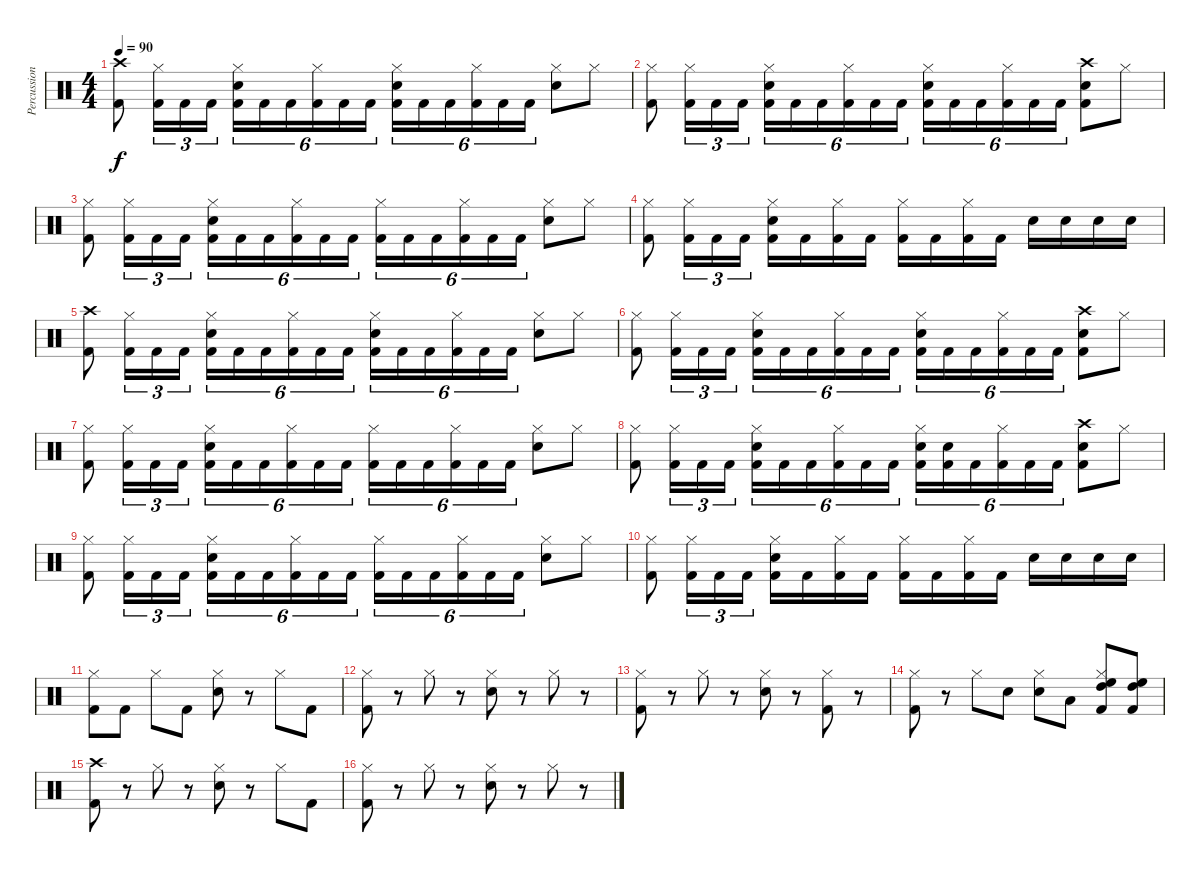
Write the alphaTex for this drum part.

\track ("Percussion" "Percussion") {instrument percussion}
\staff {score}
\articulation defaults
\ts (4 4)
\tempo 90
\clef neutral
\ks c
("Crash high (hit)" "Kick (hit) 2").8{dy f} ("Hi-Hat (closed)" "Kick (hit) 2").16{tu (3 2)} "Kick (hit) 2".16{tu (3 2)} "Kick (hit) 2".16{tu (3 2)} ("Hi-Hat (closed)" "Electric Snare (hit)" "Kick (hit) 2").16{tu (6 4)} "Kick (hit) 2".16{tu (6 4)} "Kick (hit) 2".16{tu (6 4)} ("Hi-Hat (closed)" "Kick (hit) 2").16{tu (6 4)} "Kick (hit) 2".16{tu (6 4)} "Kick (hit) 2".16{tu (6 4)} ("Hi-Hat (closed)" "Electric Snare (hit)" "Kick (hit) 2").16{tu (6 4)} "Kick (hit) 2".16{tu (6 4)} "Kick (hit) 2".16{tu (6 4)} ("Hi-Hat (closed)" "Kick (hit) 2").16{tu (6 4)} "Kick (hit) 2".16{tu (6 4)} "Kick (hit) 2".16{tu (6 4)} ("Hi-Hat (closed)" "Electric Snare (hit)").8 "Hi-Hat (closed)".8 |
("Hi-Hat (closed)" "Kick (hit) 2").8 ("Hi-Hat (closed)" "Kick (hit) 2").16{tu (3 2)} "Kick (hit) 2".16{tu (3 2)} "Kick (hit) 2".16{tu (3 2)} ("Hi-Hat (closed)" "Electric Snare (hit)" "Kick (hit) 2").16{tu (6 4)} "Kick (hit) 2".16{tu (6 4)} "Kick (hit) 2".16{tu (6 4)} ("Hi-Hat (closed)" "Kick (hit) 2").16{tu (6 4)} "Kick (hit) 2".16{tu (6 4)} "Kick (hit) 2".16{tu (6 4)} ("Hi-Hat (closed)" "Electric Snare (hit)" "Kick (hit) 2").16{tu (6 4)} "Kick (hit) 2".16{tu (6 4)} "Kick (hit) 2".16{tu (6 4)} ("Hi-Hat (closed)" "Kick (hit) 2").16{tu (6 4)} "Kick (hit) 2".16{tu (6 4)} "Kick (hit) 2".16{tu (6 4)} ("Crash high (hit)" "Electric Snare (hit)" "Kick (hit) 2").8 "Hi-Hat (closed)".8 |
("Hi-Hat (closed)" "Kick (hit) 2").8 ("Hi-Hat (closed)" "Kick (hit) 2").16{tu (3 2)} "Kick (hit) 2".16{tu (3 2)} "Kick (hit) 2".16{tu (3 2)} ("Hi-Hat (closed)" "Electric Snare (hit)" "Kick (hit) 2").16{tu (6 4)} "Kick (hit) 2".16{tu (6 4)} "Kick (hit) 2".16{tu (6 4)} ("Hi-Hat (closed)" "Kick (hit) 2").16{tu (6 4)} "Kick (hit) 2".16{tu (6 4)} "Kick (hit) 2".16{tu (6 4)} ("Hi-Hat (closed)" "Kick (hit) 2").16{tu (6 4)} "Kick (hit) 2".16{tu (6 4)} "Kick (hit) 2".16{tu (6 4)} ("Hi-Hat (closed)" "Kick (hit) 2").16{tu (6 4)} "Kick (hit) 2".16{tu (6 4)} "Kick (hit) 2".16{tu (6 4)} ("Hi-Hat (closed)" "Electric Snare (hit)").8 "Hi-Hat (closed)".8 |
("Hi-Hat (closed)" "Kick (hit) 2").8 ("Hi-Hat (closed)" "Kick (hit) 2").16{tu (3 2)} "Kick (hit) 2".16{tu (3 2)} "Kick (hit) 2".16{tu (3 2)} ("Hi-Hat (closed)" "Electric Snare (hit)" "Kick (hit) 2").16 "Kick (hit) 2".16 ("Hi-Hat (closed)" "Kick (hit) 2").16 "Kick (hit) 2".16 ("Hi-Hat (closed)" "Kick (hit) 2").16 "Kick (hit) 2".16 ("Hi-Hat (closed)" "Kick (hit) 2").16 "Kick (hit) 2".16 "Electric Snare (hit)".16 "Electric Snare (hit)".16 "Electric Snare (hit)".16 "Electric Snare (hit)".16 |
("Crash high (hit)" "Kick (hit) 2").8 ("Hi-Hat (closed)" "Kick (hit) 2").16{tu (3 2)} "Kick (hit) 2".16{tu (3 2)} "Kick (hit) 2".16{tu (3 2)} ("Hi-Hat (closed)" "Electric Snare (hit)" "Kick (hit) 2").16{tu (6 4)} "Kick (hit) 2".16{tu (6 4)} "Kick (hit) 2".16{tu (6 4)} ("Hi-Hat (closed)" "Kick (hit) 2").16{tu (6 4)} "Kick (hit) 2".16{tu (6 4)} "Kick (hit) 2".16{tu (6 4)} ("Hi-Hat (closed)" "Electric Snare (hit)" "Kick (hit) 2").16{tu (6 4)} "Kick (hit) 2".16{tu (6 4)} "Kick (hit) 2".16{tu (6 4)} ("Hi-Hat (closed)" "Kick (hit) 2").16{tu (6 4)} "Kick (hit) 2".16{tu (6 4)} "Kick (hit) 2".16{tu (6 4)} ("Hi-Hat (closed)" "Electric Snare (hit)").8 "Hi-Hat (closed)".8 |
("Hi-Hat (closed)" "Kick (hit) 2").8 ("Hi-Hat (closed)" "Kick (hit) 2").16{tu (3 2)} "Kick (hit) 2".16{tu (3 2)} "Kick (hit) 2".16{tu (3 2)} ("Hi-Hat (closed)" "Electric Snare (hit)" "Kick (hit) 2").16{tu (6 4)} "Kick (hit) 2".16{tu (6 4)} "Kick (hit) 2".16{tu (6 4)} ("Hi-Hat (closed)" "Kick (hit) 2").16{tu (6 4)} "Kick (hit) 2".16{tu (6 4)} "Kick (hit) 2".16{tu (6 4)} ("Hi-Hat (closed)" "Electric Snare (hit)" "Kick (hit) 2").16{tu (6 4)} "Kick (hit) 2".16{tu (6 4)} "Kick (hit) 2".16{tu (6 4)} ("Hi-Hat (closed)" "Kick (hit) 2").16{tu (6 4)} "Kick (hit) 2".16{tu (6 4)} "Kick (hit) 2".16{tu (6 4)} ("Crash high (hit)" "Electric Snare (hit)" "Kick (hit) 2").8 "Hi-Hat (closed)".8 |
("Hi-Hat (closed)" "Kick (hit) 2").8 ("Hi-Hat (closed)" "Kick (hit) 2").16{tu (3 2)} "Kick (hit) 2".16{tu (3 2)} "Kick (hit) 2".16{tu (3 2)} ("Hi-Hat (closed)" "Electric Snare (hit)" "Kick (hit) 2").16{tu (6 4)} "Kick (hit) 2".16{tu (6 4)} "Kick (hit) 2".16{tu (6 4)} ("Hi-Hat (closed)" "Kick (hit) 2").16{tu (6 4)} "Kick (hit) 2".16{tu (6 4)} "Kick (hit) 2".16{tu (6 4)} ("Hi-Hat (closed)" "Kick (hit) 2").16{tu (6 4)} "Kick (hit) 2".16{tu (6 4)} "Kick (hit) 2".16{tu (6 4)} ("Hi-Hat (closed)" "Kick (hit) 2").16{tu (6 4)} "Kick (hit) 2".16{tu (6 4)} "Kick (hit) 2".16{tu (6 4)} ("Hi-Hat (closed)" "Electric Snare (hit)").8 "Hi-Hat (closed)".8 |
("Hi-Hat (closed)" "Kick (hit) 2").8 ("Hi-Hat (closed)" "Kick (hit) 2").16{tu (3 2)} "Kick (hit) 2".16{tu (3 2)} "Kick (hit) 2".16{tu (3 2)} ("Hi-Hat (closed)" "Electric Snare (hit)" "Kick (hit) 2").16{tu (6 4)} "Kick (hit) 2".16{tu (6 4)} "Kick (hit) 2".16{tu (6 4)} ("Hi-Hat (closed)" "Kick (hit) 2").16{tu (6 4)} "Kick (hit) 2".16{tu (6 4)} "Kick (hit) 2".16{tu (6 4)} ("Hi-Hat (closed)" "Electric Snare (hit)" "Kick (hit) 2").16{tu (6 4)} ("Electric Snare (hit)" "Kick (hit) 2").16{tu (6 4)} "Kick (hit) 2".16{tu (6 4)} ("Hi-Hat (closed)" "Kick (hit) 2").16{tu (6 4)} "Kick (hit) 2".16{tu (6 4)} "Kick (hit) 2".16{tu (6 4)} ("Crash high (hit)" "Electric Snare (hit)" "Kick (hit) 2").8 "Hi-Hat (closed)".8 |
("Hi-Hat (closed)" "Kick (hit) 2").8 ("Hi-Hat (closed)" "Kick (hit) 2").16{tu (3 2)} "Kick (hit) 2".16{tu (3 2)} "Kick (hit) 2".16{tu (3 2)} ("Hi-Hat (closed)" "Electric Snare (hit)" "Kick (hit) 2").16{tu (6 4)} "Kick (hit) 2".16{tu (6 4)} "Kick (hit) 2".16{tu (6 4)} ("Hi-Hat (closed)" "Kick (hit) 2").16{tu (6 4)} "Kick (hit) 2".16{tu (6 4)} "Kick (hit) 2".16{tu (6 4)} ("Hi-Hat (closed)" "Kick (hit) 2").16{tu (6 4)} "Kick (hit) 2".16{tu (6 4)} "Kick (hit) 2".16{tu (6 4)} ("Hi-Hat (closed)" "Kick (hit) 2").16{tu (6 4)} "Kick (hit) 2".16{tu (6 4)} "Kick (hit) 2".16{tu (6 4)} ("Hi-Hat (closed)" "Electric Snare (hit)").8 "Hi-Hat (closed)".8 |
("Hi-Hat (closed)" "Kick (hit) 2").8 ("Hi-Hat (closed)" "Kick (hit) 2").16{tu (3 2)} "Kick (hit) 2".16{tu (3 2)} "Kick (hit) 2".16{tu (3 2)} ("Hi-Hat (closed)" "Electric Snare (hit)" "Kick (hit) 2").16 "Kick (hit) 2".16 ("Hi-Hat (closed)" "Kick (hit) 2").16 "Kick (hit) 2".16 ("Hi-Hat (closed)" "Kick (hit) 2").16 "Kick (hit) 2".16 ("Hi-Hat (closed)" "Kick (hit) 2").16 "Kick (hit) 2".16 "Electric Snare (hit)".16 "Electric Snare (hit)".16 "Electric Snare (hit)".16 "Electric Snare (hit)".16 |
("Kick (hit) 2" "Hi-Hat (closed)").8 "Kick (hit) 2".8 "Hi-Hat (closed)".8 "Kick (hit) 2".8 ("Snare (hit) 2" "Hi-Hat (closed)").8 r.8 "Hi-Hat (closed)".8 "Kick (hit) 2".8 |
("Kick (hit) 2" "Hi-Hat (closed)").8 r.8 "Hi-Hat (closed)".8 r.8 ("Snare (hit) 2" "Hi-Hat (closed)").8 r.8 "Hi-Hat (closed)".8 r.8 |
("Kick (hit) 2" "Hi-Hat (closed)").8 r.8 "Hi-Hat (closed)".8 r.8 ("Snare (hit) 2" "Hi-Hat (closed)").8 r.8 ("Kick (hit) 2" "Hi-Hat (closed)").8 r.8 |
("Kick (hit) 2" "Hi-Hat (closed)").8 r.8 "Hi-Hat (closed)".8 "Snare (hit) 2".8 ("Snare (hit) 2" "Hi-Hat (closed)").8 "Low Tom (hit)".8 ("Kick (hit) 2" "Hi-Hat (closed)" "High Floor Tom (hit)" "High Tom (hit)").8 ("Kick (hit) 2" "High Floor Tom (hit)" "High Tom (hit)").8 |
("Kick (hit) 2" "Crash high (hit)").8 r.8 "Hi-Hat (closed)".8 r.8 ("Snare (hit) 2" "Hi-Hat (closed)").8 r.8 "Hi-Hat (closed)".8 "Kick (hit) 2".8 |
("Kick (hit) 2" "Hi-Hat (closed)").8 r.8 "Hi-Hat (closed)".8 r.8 ("Snare (hit) 2" "Hi-Hat (closed)").8 r.8 "Hi-Hat (closed)".8 r.8
